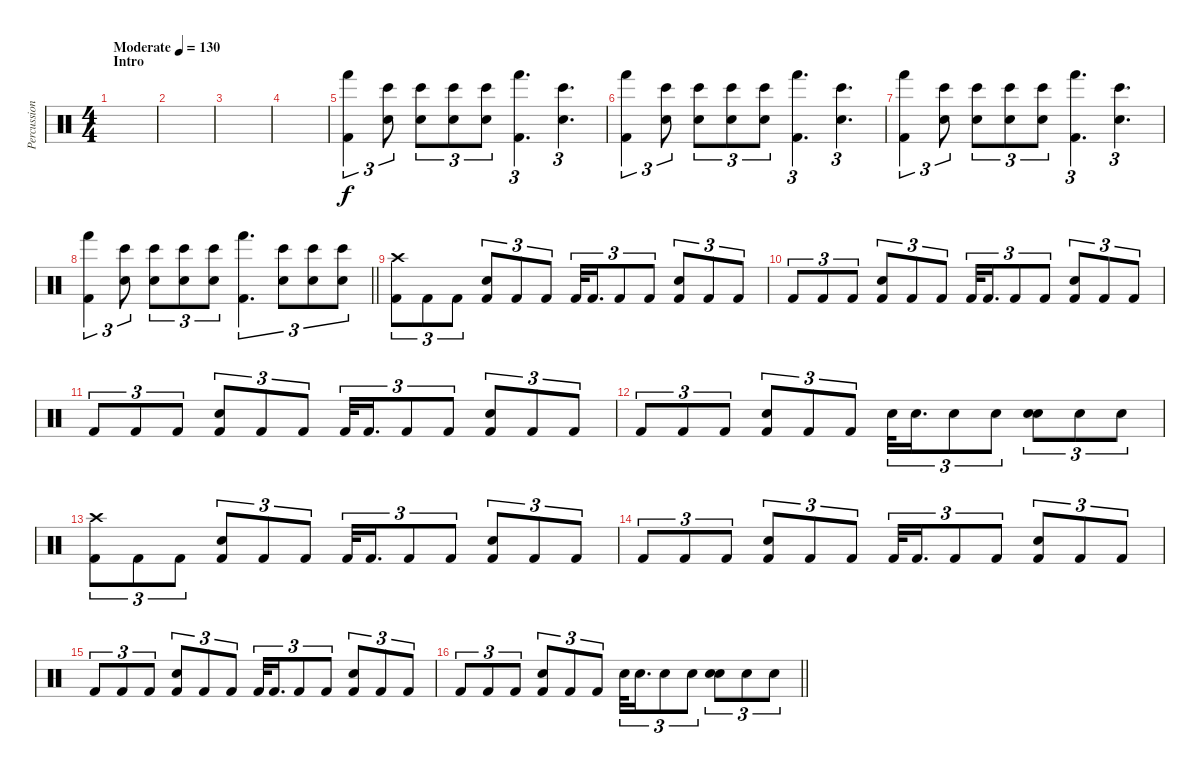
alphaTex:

\track ("Percussions" "Percussion") {instrument percussion}
\staff {score}
\articulation defaults
\ts (4 4)
\section ("" "Intro")
\tempo (130 "Moderate")
\clef neutral
\ks c
|
|
|
|
("Hand (hit)" "Kick (hit) 2").4{tu (3 2)} ("Bongo High (hit)" "Electric Snare (hit)").8{tu (3 2)} ("Bongo High (hit)" "Electric Snare (hit)").8{tu (3 2)} ("Bongo High (hit)" "Electric Snare (hit)").8{tu (3 2)} ("Bongo High (hit)" "Electric Snare (hit)").8{tu (3 2)} ("Hand (hit)" "Kick (hit) 2").4{d tu (3 2)} ("Bongo High (hit)" "Electric Snare (hit)").4{d tu (3 2)} |
("Hand (hit)" "Kick (hit) 2").4{tu (3 2)} ("Bongo High (hit)" "Electric Snare (hit)").8{tu (3 2)} ("Bongo High (hit)" "Electric Snare (hit)").8{tu (3 2)} ("Bongo High (hit)" "Electric Snare (hit)").8{tu (3 2)} ("Bongo High (hit)" "Electric Snare (hit)").8{tu (3 2)} ("Hand (hit)" "Kick (hit) 2").4{d tu (3 2)} ("Bongo High (hit)" "Electric Snare (hit)").4{d tu (3 2)} |
("Hand (hit)" "Kick (hit) 2").4{tu (3 2)} ("Bongo High (hit)" "Electric Snare (hit)").8{tu (3 2)} ("Bongo High (hit)" "Electric Snare (hit)").8{tu (3 2)} ("Bongo High (hit)" "Electric Snare (hit)").8{tu (3 2)} ("Bongo High (hit)" "Electric Snare (hit)").8{tu (3 2)} ("Hand (hit)" "Kick (hit) 2").4{d tu (3 2)} ("Bongo High (hit)" "Electric Snare (hit)").4{d tu (3 2)} |
\barLineRight lightlight
("Hand (hit)" "Kick (hit) 2").4{tu (3 2)} ("Bongo High (hit)" "Electric Snare (hit)").8{tu (3 2)} ("Bongo High (hit)" "Electric Snare (hit)").8{tu (3 2)} ("Bongo High (hit)" "Electric Snare (hit)").8{tu (3 2)} ("Bongo High (hit)" "Electric Snare (hit)").8{tu (3 2)} ("Hand (hit)" "Kick (hit) 2").4{d tu (3 2)} ("Electric Snare (hit)" "Bongo High (hit)").8{tu (3 2)} ("Electric Snare (hit)" "Bongo High (hit)").8{tu (3 2)} ("Electric Snare (hit)" "Bongo High (hit)").8{tu (3 2)} |
\section ("" "")
("Crash high (hit)" "Kick (hit) 2").8{tu (3 2)} "Kick (hit) 2".8{tu (3 2)} "Kick (hit) 2".8{tu (3 2)} ("Electric Snare (hit)" "Kick (hit) 2").8{tu (3 2)} "Kick (hit) 2".8{tu (3 2)} "Kick (hit) 2".8{tu (3 2)} "Kick (hit) 2".32{tu (3 2)} "Kick (hit) 2".16{d tu (3 2)} "Kick (hit) 2".8{tu (3 2)} "Kick (hit) 2".8{tu (3 2)} ("Electric Snare (hit)" "Kick (hit) 2").8{tu (3 2)} "Kick (hit) 2".8{tu (3 2)} "Kick (hit) 2".8{tu (3 2)} |
"Kick (hit) 2".8{tu (3 2)} "Kick (hit) 2".8{tu (3 2)} "Kick (hit) 2".8{tu (3 2)} ("Electric Snare (hit)" "Kick (hit) 2").8{tu (3 2)} "Kick (hit) 2".8{tu (3 2)} "Kick (hit) 2".8{tu (3 2)} "Kick (hit) 2".32{tu (3 2)} "Kick (hit) 2".16{d tu (3 2)} "Kick (hit) 2".8{tu (3 2)} "Kick (hit) 2".8{tu (3 2)} ("Electric Snare (hit)" "Kick (hit) 2").8{tu (3 2)} "Kick (hit) 2".8{tu (3 2)} "Kick (hit) 2".8{tu (3 2)} |
"Kick (hit) 2".8{tu (3 2)} "Kick (hit) 2".8{tu (3 2)} "Kick (hit) 2".8{tu (3 2)} ("Electric Snare (hit)" "Kick (hit) 2").8{tu (3 2)} "Kick (hit) 2".8{tu (3 2)} "Kick (hit) 2".8{tu (3 2)} "Kick (hit) 2".32{tu (3 2)} "Kick (hit) 2".16{d tu (3 2)} "Kick (hit) 2".8{tu (3 2)} "Kick (hit) 2".8{tu (3 2)} ("Electric Snare (hit)" "Kick (hit) 2").8{tu (3 2)} "Kick (hit) 2".8{tu (3 2)} "Kick (hit) 2".8{tu (3 2)} |
"Kick (hit) 2".8{tu (3 2)} "Kick (hit) 2".8{tu (3 2)} "Kick (hit) 2".8{tu (3 2)} ("Electric Snare (hit)" "Kick (hit) 2").8{tu (3 2)} "Kick (hit) 2".8{tu (3 2)} "Kick (hit) 2".8{tu (3 2)} "Electric Snare (hit)".32{tu (3 2)} "Electric Snare (hit)".16{d tu (3 2)} "Electric Snare (hit)".8{tu (3 2)} "Electric Snare (hit)".8{tu (3 2)} ("Electric Snare (hit)" "Electric Snare (hit)").8{tu (3 2)} "Electric Snare (hit)".8{tu (3 2)} "Electric Snare (hit)".8{tu (3 2)} |
("Crash high (hit)" "Kick (hit) 2").8{tu (3 2)} "Kick (hit) 2".8{tu (3 2)} "Kick (hit) 2".8{tu (3 2)} ("Electric Snare (hit)" "Kick (hit) 2").8{tu (3 2)} "Kick (hit) 2".8{tu (3 2)} "Kick (hit) 2".8{tu (3 2)} "Kick (hit) 2".32{tu (3 2)} "Kick (hit) 2".16{d tu (3 2)} "Kick (hit) 2".8{tu (3 2)} "Kick (hit) 2".8{tu (3 2)} ("Electric Snare (hit)" "Kick (hit) 2").8{tu (3 2)} "Kick (hit) 2".8{tu (3 2)} "Kick (hit) 2".8{tu (3 2)} |
"Kick (hit) 2".8{tu (3 2)} "Kick (hit) 2".8{tu (3 2)} "Kick (hit) 2".8{tu (3 2)} ("Electric Snare (hit)" "Kick (hit) 2").8{tu (3 2)} "Kick (hit) 2".8{tu (3 2)} "Kick (hit) 2".8{tu (3 2)} "Kick (hit) 2".32{tu (3 2)} "Kick (hit) 2".16{d tu (3 2)} "Kick (hit) 2".8{tu (3 2)} "Kick (hit) 2".8{tu (3 2)} ("Electric Snare (hit)" "Kick (hit) 2").8{tu (3 2)} "Kick (hit) 2".8{tu (3 2)} "Kick (hit) 2".8{tu (3 2)} |
"Kick (hit) 2".8{tu (3 2)} "Kick (hit) 2".8{tu (3 2)} "Kick (hit) 2".8{tu (3 2)} ("Electric Snare (hit)" "Kick (hit) 2").8{tu (3 2)} "Kick (hit) 2".8{tu (3 2)} "Kick (hit) 2".8{tu (3 2)} "Kick (hit) 2".32{tu (3 2)} "Kick (hit) 2".16{d tu (3 2)} "Kick (hit) 2".8{tu (3 2)} "Kick (hit) 2".8{tu (3 2)} ("Electric Snare (hit)" "Kick (hit) 2").8{tu (3 2)} "Kick (hit) 2".8{tu (3 2)} "Kick (hit) 2".8{tu (3 2)} |
\barLineRight lightlight "Kick (hit) 2".8{tu (3 2)} "Kick (hit) 2".8{tu (3 2)} "Kick (hit) 2".8{tu (3 2)}
("Electric Snare (hit)" "Kick (hit) 2").8{tu (3 2)} "Kick (hit) 2".8{tu (3 2)} "Kick (hit) 2".8{tu (3 2)} "Electric Snare (hit)".32{tu (3 2)} "Electric Snare (hit)".16{d tu (3 2)} "Electric Snare (hit)".8{tu (3 2)} "Electric Snare (hit)".8{tu (3 2)} ("Electric Snare (hit)" "Electric Snare (hit)").8{tu (3 2)} "Electric Snare (hit)".8{tu (3 2)} "Electric Snare (hit)".8{tu (3 2)}
